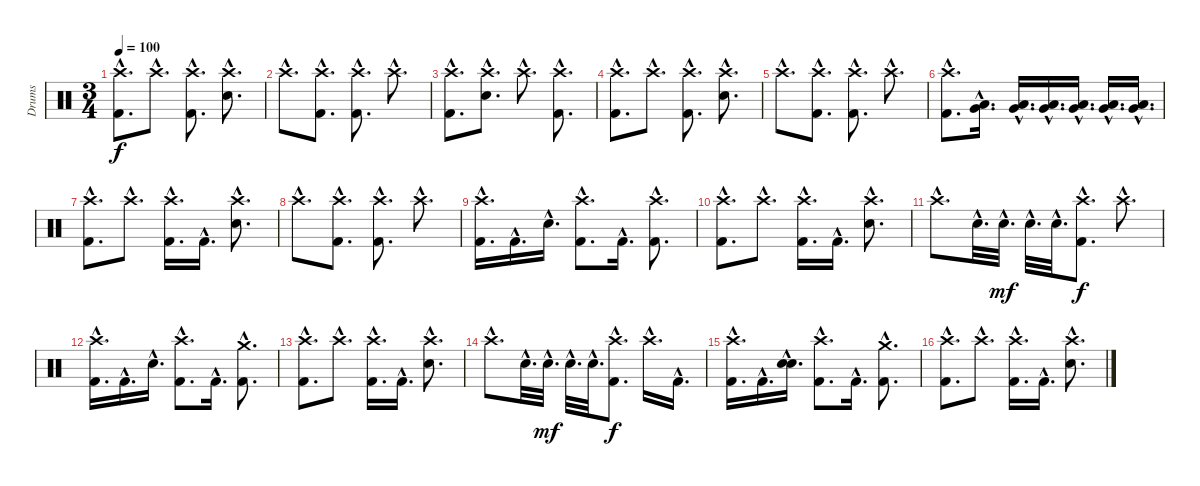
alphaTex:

\track ("Drums" "Drums") {instrument percussion}
\staff {score}
\articulation defaults
\ts (3 4)
\tempo 100
\clef neutral
\ks c
("Crash high (hit)"{hac} "Kick (hit) 2"{hac}).8{d dy f} "Crash high (hit)"{hac}.8{d} ("Crash high (hit)"{hac} "Kick (hit) 2"{hac}).8{d} ("Crash high (hit)"{hac} "Electric Snare (hit)"{hac}).8{d} |
"Crash high (hit)"{hac}.8{d} ("Crash high (hit)"{hac} "Kick (hit) 2"{hac}).8{d} ("Crash high (hit)"{hac} "Kick (hit) 2"{hac}).8{d} "Crash high (hit)"{hac}.8{d} |
("Crash high (hit)"{hac} "Kick (hit) 2"{hac}).8{d} ("Crash high (hit)"{hac} "Electric Snare (hit)"{hac}).8{d} "Crash high (hit)"{hac}.8{d} ("Crash high (hit)"{hac} "Kick (hit) 2"{hac}).8{d} |
("Crash high (hit)"{hac} "Kick (hit) 2"{hac}).8{d} "Crash high (hit)"{hac}.8{d} ("Crash high (hit)"{hac} "Kick (hit) 2"{hac}).8{d} ("Crash high (hit)"{hac} "Electric Snare (hit)"{hac}).8{d} |
"Crash high (hit)"{hac}.8{d} ("Crash high (hit)"{hac} "Kick (hit) 2"{hac}).8{d} ("Crash high (hit)"{hac} "Kick (hit) 2"{hac}).8{d} "Crash high (hit)"{hac}.8{d} |
("Crash high (hit)"{hac} "Kick (hit) 2"{hac}).8{d} ("Low Floor Tom (hit)"{hac} "Very Low Tom (hit)"{hac}).16{d} ("Low Floor Tom (hit)"{hac} "Very Low Tom (hit)"{hac}).16{d} ("Low Floor Tom (hit)"{hac} "Very Low Tom (hit)"{hac}).16{d} ("Low Floor Tom (hit)"{hac} "Very Low Tom (hit)"{hac}).16{d} ("Low Floor Tom (hit)"{hac} "Very Low Tom (hit)"{hac}).16{d} ("Low Floor Tom (hit)"{hac} "Very Low Tom (hit)"{hac}).16{d} |
("Crash high (hit)"{hac} "Kick (hit) 2"{hac}).8{d} "Crash high (hit)"{hac}.8{d} ("Crash high (hit)"{hac} "Kick (hit) 2"{hac}).16{d} "Kick (hit) 2"{hac}.16{d} ("Crash high (hit)"{hac} "Electric Snare (hit)"{hac}).8{d} |
"Crash high (hit)"{hac}.8{d} ("Crash high (hit)"{hac} "Kick (hit) 2"{hac}).8{d} ("Crash high (hit)"{hac} "Kick (hit) 2"{hac}).8{d} "Crash high (hit)"{hac}.8{d} |
("Crash high (hit)"{hac} "Kick (hit) 2"{hac}).16{d} "Kick (hit) 2"{hac}.16{d} "Electric Snare (hit)"{hac}.16{d} ("Crash high (hit)"{hac} "Kick (hit) 2"{hac}).8{d} "Kick (hit) 2"{hac}.16{d} ("Crash high (hit)"{hac} "Kick (hit) 2"{hac}).8{d} |
("Crash high (hit)"{hac} "Kick (hit) 2"{hac}).8{d} "Crash high (hit)"{hac}.8{d} ("Crash high (hit)"{hac} "Kick (hit) 2"{hac}).16{d} "Kick (hit) 2"{hac}.16{d} ("Crash high (hit)"{hac} "Electric Snare (hit)"{hac}).8{d} |
"Crash high (hit)"{hac}.8{d} "Electric Snare (hit)"{hac}.32{d} "Electric Snare (hit)"{hac}.32{d dy mf} "Electric Snare (hit)"{hac}.32{d} "Electric Snare (hit)"{hac}.32{d} ("Crash high (hit)"{hac} "Kick (hit) 2"{hac}).8{d dy f} "Crash high (hit)"{hac}.8{d} |
("Crash high (hit)"{hac} "Kick (hit) 2"{hac}).16{d} "Kick (hit) 2"{hac}.16{d} "Electric Snare (hit)"{hac}.16{d} ("Crash high (hit)"{hac} "Kick (hit) 2"{hac}).8{d} "Kick (hit) 2"{hac}.16{d} ("Crash medium (hit)"{hac} "Kick (hit) 2"{hac}).8{d} |
("Crash high (hit)"{hac} "Kick (hit) 2"{hac}).8{d} "Crash high (hit)"{hac}.8{d} ("Crash high (hit)"{hac} "Kick (hit) 2"{hac}).16{d} "Kick (hit) 2"{hac}.16{d} ("Crash high (hit)"{hac} "Electric Snare (hit)"{hac}).8{d} |
"Crash high (hit)"{hac}.8{d} "Electric Snare (hit)"{hac}.32{d} "Electric Snare (hit)"{hac}.32{d dy mf} "Electric Snare (hit)"{hac}.32{d} "Electric Snare (hit)"{hac}.32{d} ("Crash high (hit)"{hac} "Kick (hit) 2"{hac}).8{d dy f} "Crash high (hit)"{hac}.16{d} "Kick (hit) 2"{hac}.16{d} |
("Crash high (hit)"{hac} "Kick (hit) 2"{hac}).16{d} "Kick (hit) 2"{hac}.16{d} ("Electric Snare (hit)"{hac} "Electric Snare (hit)"{hac}).16{d bd 240} ("Crash high (hit)"{hac} "Kick (hit) 2"{hac}).8{d} "Kick (hit) 2"{hac}.16{d} ("Crash medium (hit)"{hac} "Kick (hit) 2"{hac}).8{d} |
("Crash high (hit)"{hac} "Kick (hit) 2"{hac}).8{d} "Crash high (hit)"{hac}.8{d} ("Crash high (hit)"{hac} "Kick (hit) 2"{hac}).16{d} "Kick (hit) 2"{hac}.16{d} ("Crash high (hit)"{hac} "Electric Snare (hit)"{hac}).8{d}
